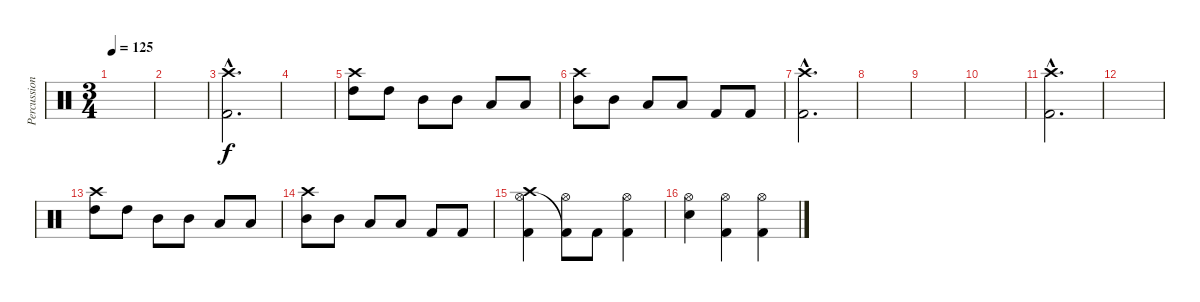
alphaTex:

\track ("Percussion" "Percussion") {instrument percussion}
\staff {score}
\articulation defaults
\ts (3 4)
\tempo 125
\clef neutral
\ks c
|
|
("Crash high (hit)"{hac} "Kick (hit) 2"{hac}).2{d} |
|
("Crash high (hit)" "High Tom (hit)").8 "High Tom (hit)".8 "Mid Tom (hit)".8 "Mid Tom (hit)".8 "Low Tom (hit)".8 "Low Tom (hit)".8 |
("Crash high (hit)" "Mid Tom (hit)").8 "Mid Tom (hit)".8 "Low Tom (hit)".8 "Low Tom (hit)".8 "Kick (hit) 2".8 "Kick (hit) 2".8 |
("Crash high (hit)"{hac} "Kick (hit) 2"{hac}).2{d} |
|
|
|
("Crash high (hit)"{hac} "Kick (hit) 2"{hac}).2{d} |
|
("Crash high (hit)" "High Tom (hit)").8 "High Tom (hit)".8 "Mid Tom (hit)".8 "Mid Tom (hit)".8 "Low Tom (hit)".8 "Low Tom (hit)".8 |
("Crash high (hit)" "Mid Tom (hit)").8 "Mid Tom (hit)".8 "Low Tom (hit)".8 "Low Tom (hit)".8 "Kick (hit) 2".8 "Kick (hit) 2".8 |
("Crash high (hit)" "Hi-Hat (open)" "Kick (hit) 2").4 ("Hi-Hat (open)" "Kick (hit) 2"{t}).8 "Kick (hit) 2".8 ("Hi-Hat (open)" "Kick (hit) 2").4 |
("Hi-Hat (open)" "Snare (hit) 2").4 ("Hi-Hat (open)" "Kick (hit) 2").4 ("Hi-Hat (open)" "Kick (hit) 2").4
